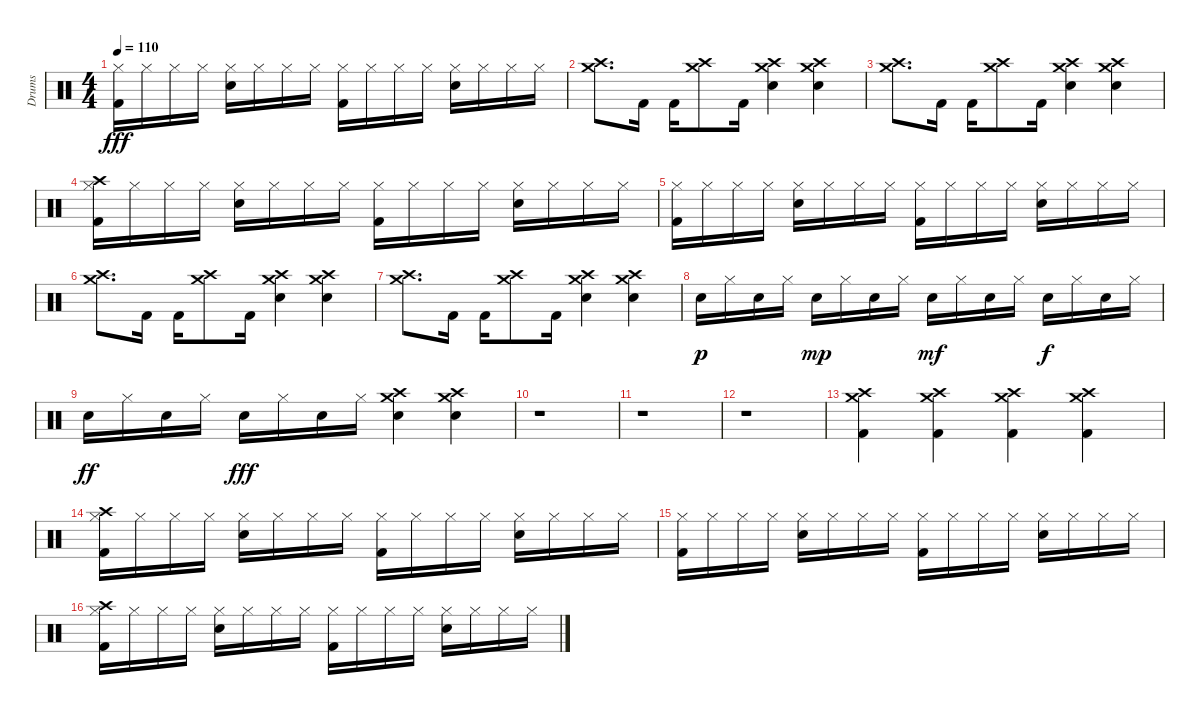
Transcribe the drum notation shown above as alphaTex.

\track ("Drums" "Drums") {instrument percussion}
\staff {score}
\articulation defaults
\ts (4 4)
\tempo 110
\clef neutral
\ks c
("Hi-Hat (closed)" "Kick (hit) 2").16{dy fff} "Hi-Hat (closed)".16 "Hi-Hat (closed)".16 "Hi-Hat (closed)".16 ("Hi-Hat (closed)" "Electric Snare (hit)").16 "Hi-Hat (closed)".16 "Hi-Hat (closed)".16 "Hi-Hat (closed)".16 ("Hi-Hat (closed)" "Kick (hit) 2").16 "Hi-Hat (closed)".16 "Hi-Hat (closed)".16 "Hi-Hat (closed)".16 ("Hi-Hat (closed)" "Electric Snare (hit)").16 "Hi-Hat (closed)".16 "Hi-Hat (closed)".16 "Hi-Hat (closed)".16 |
("Crash high (hit)" "Crash medium (hit)").8{d} "Kick (hit) 2".16 "Kick (hit) 2".16 ("Crash high (hit)" "Crash medium (hit)").8 "Kick (hit) 2".16 ("Crash high (hit)" "Crash medium (hit)" "Electric Snare (hit)").4 ("Crash high (hit)" "Crash medium (hit)" "Electric Snare (hit)").4 |
("Crash high (hit)" "Crash medium (hit)").8{d} "Kick (hit) 2".16 "Kick (hit) 2".16 ("Crash high (hit)" "Crash medium (hit)").8 "Kick (hit) 2".16 ("Crash high (hit)" "Crash medium (hit)" "Electric Snare (hit)").4 ("Crash high (hit)" "Crash medium (hit)" "Electric Snare (hit)").4 |
("Crash high (hit)" "Hi-Hat (closed)" "Kick (hit) 2").16 "Hi-Hat (closed)".16 "Hi-Hat (closed)".16 "Hi-Hat (closed)".16 ("Hi-Hat (closed)" "Electric Snare (hit)").16 "Hi-Hat (closed)".16 "Hi-Hat (closed)".16 "Hi-Hat (closed)".16 ("Hi-Hat (closed)" "Kick (hit) 2").16 "Hi-Hat (closed)".16 "Hi-Hat (closed)".16 "Hi-Hat (closed)".16 ("Hi-Hat (closed)" "Electric Snare (hit)").16 "Hi-Hat (closed)".16 "Hi-Hat (closed)".16 "Hi-Hat (closed)".16 |
("Hi-Hat (closed)" "Kick (hit) 2").16 "Hi-Hat (closed)".16 "Hi-Hat (closed)".16 "Hi-Hat (closed)".16 ("Hi-Hat (closed)" "Electric Snare (hit)").16 "Hi-Hat (closed)".16 "Hi-Hat (closed)".16 "Hi-Hat (closed)".16 ("Hi-Hat (closed)" "Kick (hit) 2").16 "Hi-Hat (closed)".16 "Hi-Hat (closed)".16 "Hi-Hat (closed)".16 ("Hi-Hat (closed)" "Electric Snare (hit)").16 "Hi-Hat (closed)".16 "Hi-Hat (closed)".16 "Hi-Hat (closed)".16 |
("Crash high (hit)" "Crash medium (hit)").8{d} "Kick (hit) 2".16 "Kick (hit) 2".16 ("Crash high (hit)" "Crash medium (hit)").8 "Kick (hit) 2".16 ("Crash high (hit)" "Crash medium (hit)" "Electric Snare (hit)").4 ("Crash high (hit)" "Crash medium (hit)" "Electric Snare (hit)").4 |
("Crash high (hit)" "Crash medium (hit)").8{d} "Kick (hit) 2".16 "Kick (hit) 2".16 ("Crash high (hit)" "Crash medium (hit)").8 "Kick (hit) 2".16 ("Crash high (hit)" "Crash medium (hit)" "Electric Snare (hit)").4 ("Crash high (hit)" "Crash medium (hit)" "Electric Snare (hit)").4 |
"Electric Snare (hit)".16{dy p} "Hi-Hat (closed)".16 "Electric Snare (hit)".16 "Hi-Hat (closed)".16 "Electric Snare (hit)".16{dy mp} "Hi-Hat (closed)".16 "Electric Snare (hit)".16 "Hi-Hat (closed)".16 "Electric Snare (hit)".16{dy mf} "Hi-Hat (closed)".16 "Electric Snare (hit)".16 "Hi-Hat (closed)".16 "Electric Snare (hit)".16{dy f} "Hi-Hat (closed)".16 "Electric Snare (hit)".16 "Hi-Hat (closed)".16 |
"Electric Snare (hit)".16{dy ff} "Hi-Hat (closed)".16 "Electric Snare (hit)".16 "Hi-Hat (closed)".16 "Electric Snare (hit)".16{dy fff} "Hi-Hat (closed)".16 "Electric Snare (hit)".16 "Hi-Hat (closed)".16 ("Crash high (hit)" "Crash medium (hit)" "Electric Snare (hit)").4 ("Crash high (hit)" "Crash medium (hit)" "Electric Snare (hit)").4 |
r.1 |
r.1 |
r.1 |
("Crash high (hit)" "Crash medium (hit)" "Kick (hit) 2").4 ("Crash high (hit)" "Crash medium (hit)" "Kick (hit) 2").4 ("Crash high (hit)" "Crash medium (hit)" "Kick (hit) 2").4 ("Crash high (hit)" "Crash medium (hit)" "Kick (hit) 2").4 |
("Crash high (hit)" "Hi-Hat (closed)" "Kick (hit) 2").16 "Hi-Hat (closed)".16 "Hi-Hat (closed)".16 "Hi-Hat (closed)".16 ("Hi-Hat (closed)" "Electric Snare (hit)").16 "Hi-Hat (closed)".16 "Hi-Hat (closed)".16 "Hi-Hat (closed)".16 ("Hi-Hat (closed)" "Kick (hit) 2").16 "Hi-Hat (closed)".16 "Hi-Hat (closed)".16 "Hi-Hat (closed)".16 ("Hi-Hat (closed)" "Electric Snare (hit)").16 "Hi-Hat (closed)".16 "Hi-Hat (closed)".16 "Hi-Hat (closed)".16 |
("Hi-Hat (closed)" "Kick (hit) 2").16 "Hi-Hat (closed)".16 "Hi-Hat (closed)".16 "Hi-Hat (closed)".16 ("Hi-Hat (closed)" "Electric Snare (hit)").16 "Hi-Hat (closed)".16 "Hi-Hat (closed)".16 "Hi-Hat (closed)".16 ("Hi-Hat (closed)" "Kick (hit) 2").16 "Hi-Hat (closed)".16 "Hi-Hat (closed)".16 "Hi-Hat (closed)".16 ("Hi-Hat (closed)" "Electric Snare (hit)").16 "Hi-Hat (closed)".16 "Hi-Hat (closed)".16 "Hi-Hat (closed)".16 |
("Crash high (hit)" "Hi-Hat (closed)" "Kick (hit) 2").16 "Hi-Hat (closed)".16 "Hi-Hat (closed)".16 "Hi-Hat (closed)".16 ("Hi-Hat (closed)" "Electric Snare (hit)").16 "Hi-Hat (closed)".16 "Hi-Hat (closed)".16 "Hi-Hat (closed)".16 ("Hi-Hat (closed)" "Kick (hit) 2").16 "Hi-Hat (closed)".16 "Hi-Hat (closed)".16 "Hi-Hat (closed)".16 ("Hi-Hat (closed)" "Electric Snare (hit)").16 "Hi-Hat (closed)".16 "Hi-Hat (closed)".16 "Hi-Hat (closed)".16
